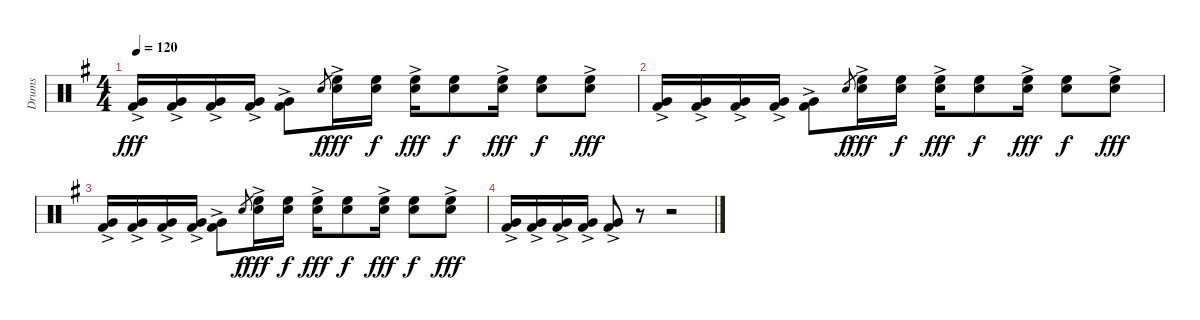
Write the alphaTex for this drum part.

\track ("Drums" "Drums") {instrument percussion}
\staff {score}
\articulation defaults
\ts (4 4)
\tempo 120
\clef neutral
\ks eminor
("Very Low Tom (hit)"{ac} "Kick (hit) 2").16{dy fff} ("Very Low Tom (hit)"{ac} "Kick (hit) 2").16 ("Very Low Tom (hit)"{ac} "Kick (hit) 2").16 ("Very Low Tom (hit)"{ac} "Kick (hit) 2").16 ("Very Low Tom (hit)"{ac} "Kick (hit) 2").8 "Snare (hit) 2".8{gr dy f} ("High Floor Tom (hit)" "Snare (hit) 2"{ac}).16{dy fff} ("High Floor Tom (hit)" "Snare (hit) 2").16{dy f} ("High Floor Tom (hit)" "Snare (hit) 2"{ac}).16{dy fff} ("High Floor Tom (hit)" "Snare (hit) 2").8{dy f} ("High Floor Tom (hit)" "Snare (hit) 2"{ac}).16{dy fff} ("High Floor Tom (hit)" "Snare (hit) 2").8{dy f} ("High Floor Tom (hit)" "Snare (hit) 2"{ac}).8{dy fff} |
("Very Low Tom (hit)"{ac} "Kick (hit) 2").16 ("Very Low Tom (hit)"{ac} "Kick (hit) 2").16 ("Very Low Tom (hit)"{ac} "Kick (hit) 2").16 ("Very Low Tom (hit)"{ac} "Kick (hit) 2").16 ("Very Low Tom (hit)"{ac} "Kick (hit) 2").8 "Snare (hit) 2".8{gr dy f} ("High Floor Tom (hit)" "Snare (hit) 2"{ac}).16{dy fff} ("High Floor Tom (hit)" "Snare (hit) 2").16{dy f} ("High Floor Tom (hit)" "Snare (hit) 2"{ac}).16{dy fff} ("High Floor Tom (hit)" "Snare (hit) 2").8{dy f} ("High Floor Tom (hit)" "Snare (hit) 2"{ac}).16{dy fff} ("High Floor Tom (hit)" "Snare (hit) 2").8{dy f} ("High Floor Tom (hit)" "Snare (hit) 2"{ac}).8{dy fff} |
("Very Low Tom (hit)"{ac} "Kick (hit) 2").16 ("Very Low Tom (hit)"{ac} "Kick (hit) 2").16 ("Very Low Tom (hit)"{ac} "Kick (hit) 2").16 ("Very Low Tom (hit)"{ac} "Kick (hit) 2").16 ("Very Low Tom (hit)"{ac} "Kick (hit) 2").8 "Snare (hit) 2".8{gr dy f} ("High Floor Tom (hit)" "Snare (hit) 2"{ac}).16{dy fff} ("High Floor Tom (hit)" "Snare (hit) 2").16{dy f} ("High Floor Tom (hit)" "Snare (hit) 2"{ac}).16{dy fff} ("High Floor Tom (hit)" "Snare (hit) 2").8{dy f} ("High Floor Tom (hit)" "Snare (hit) 2"{ac}).16{dy fff} ("High Floor Tom (hit)" "Snare (hit) 2").8{dy f} ("High Floor Tom (hit)" "Snare (hit) 2"{ac}).8{dy fff} |
("Very Low Tom (hit)"{ac} "Kick (hit) 2").16 ("Very Low Tom (hit)"{ac} "Kick (hit) 2").16 ("Very Low Tom (hit)"{ac} "Kick (hit) 2").16 ("Very Low Tom (hit)"{ac} "Kick (hit) 2").16 ("Very Low Tom (hit)"{ac} "Kick (hit) 2"{ac}).8 r.8 r.2
